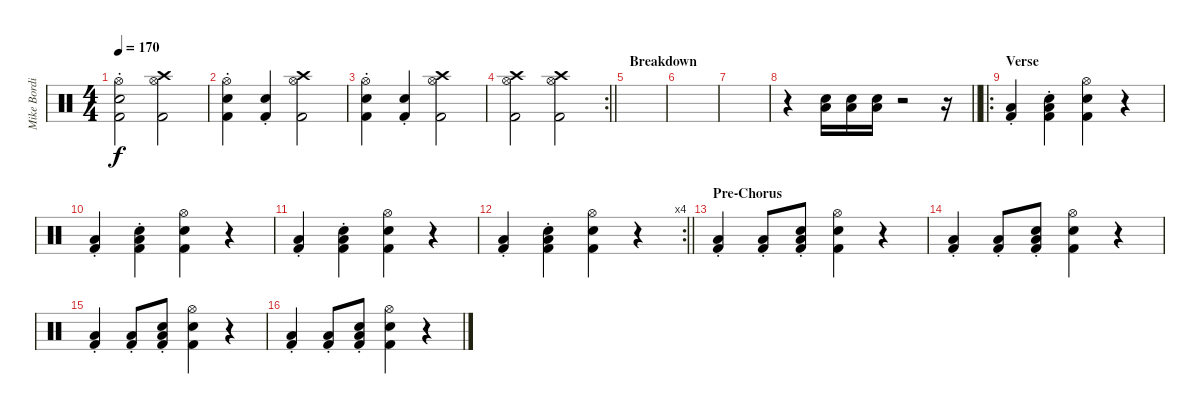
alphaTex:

\track ("Mike Bordin" "Mike Bordi") {instrument percussion}
\staff {score}
\articulation defaults
\ts (4 4)
\tempo 170
\clef neutral
\ks c
("Hi-Hat (open)" "Snare (hit) 2" "Kick (hit) 2"{st}).2{dy f} ("Hi-Hat (open)" "Crash high (hit)" "Kick (hit) 2").2 |
("Hi-Hat (open)" "Snare (hit) 2" "Kick (hit) 2"{st}).4 ("Snare (hit) 2" "Kick (hit) 2"{st}).4 ("Hi-Hat (open)" "Crash high (hit)" "Kick (hit) 2").2 |
("Hi-Hat (open)" "Snare (hit) 2" "Kick (hit) 2"{st}).4 ("Snare (hit) 2" "Kick (hit) 2"{st}).4 ("Hi-Hat (open)" "Crash high (hit)" "Kick (hit) 2").2 |
\rc 2
\barLineRight lightlight
("Hi-Hat (open)" "Crash high (hit)" "Kick (hit) 2").2 ("Hi-Hat (open)" "Crash high (hit)" "Kick (hit) 2").2 |
\section ("" "Breakdown")
|
|
|
\barLineRight lightlight
r.4{volume 10} ("Snare (hit) 2" "Low Floor Tom (hit)").16 ("Snare (hit) 2" "Low Floor Tom (hit)").16 ("Snare (hit) 2" "Low Floor Tom (hit)").16 r.2 r.16 |
\ro
\section ("" "Verse")
("Kick (hit) 2"{st} "Low Floor Tom (hit)").4{volume 14} ("Snare (hit) 2" "Kick (hit) 2"{st} "Low Floor Tom (hit)").4 ("Hi-Hat (open)" "Snare (hit) 2" "Kick (hit) 2").4 r.4 |
("Kick (hit) 2"{st} "Low Floor Tom (hit)").4 ("Snare (hit) 2" "Kick (hit) 2"{st} "Low Floor Tom (hit)").4 ("Hi-Hat (open)" "Snare (hit) 2" "Kick (hit) 2").4 r.4 |
("Kick (hit) 2"{st} "Low Floor Tom (hit)").4 ("Snare (hit) 2" "Kick (hit) 2"{st} "Low Floor Tom (hit)").4 ("Hi-Hat (open)" "Snare (hit) 2" "Kick (hit) 2").4 r.4 |
\rc 4
\barLineRight lightlight
("Kick (hit) 2"{st} "Low Floor Tom (hit)").4 ("Snare (hit) 2" "Kick (hit) 2"{st} "Low Floor Tom (hit)").4 ("Hi-Hat (open)" "Snare (hit) 2" "Kick (hit) 2").4 r.4 |
\section ("" "Pre-Chorus")
("Kick (hit) 2"{st} "Low Floor Tom (hit)").4{volume 14} ("Kick (hit) 2"{st} "Low Floor Tom (hit)").8{volume 14} ("Snare (hit) 2" "Kick (hit) 2"{st} "Low Floor Tom (hit)").8 ("Hi-Hat (open)" "Snare (hit) 2" "Kick (hit) 2").4 r.4 |
("Kick (hit) 2"{st} "Low Floor Tom (hit)").4{volume 14} ("Kick (hit) 2"{st} "Low Floor Tom (hit)").8{volume 14} ("Snare (hit) 2" "Kick (hit) 2"{st} "Low Floor Tom (hit)").8 ("Hi-Hat (open)" "Snare (hit) 2" "Kick (hit) 2").4 r.4 |
("Kick (hit) 2"{st} "Low Floor Tom (hit)").4{volume 14} ("Kick (hit) 2"{st} "Low Floor Tom (hit)").8{volume 14} ("Snare (hit) 2" "Kick (hit) 2"{st} "Low Floor Tom (hit)").8 ("Hi-Hat (open)" "Snare (hit) 2" "Kick (hit) 2").4 r.4 |
("Kick (hit) 2"{st} "Low Floor Tom (hit)").4{volume 14} ("Kick (hit) 2"{st} "Low Floor Tom (hit)").8{volume 14} ("Snare (hit) 2" "Kick (hit) 2"{st} "Low Floor Tom (hit)").8 ("Hi-Hat (open)" "Snare (hit) 2" "Kick (hit) 2").4 r.4
